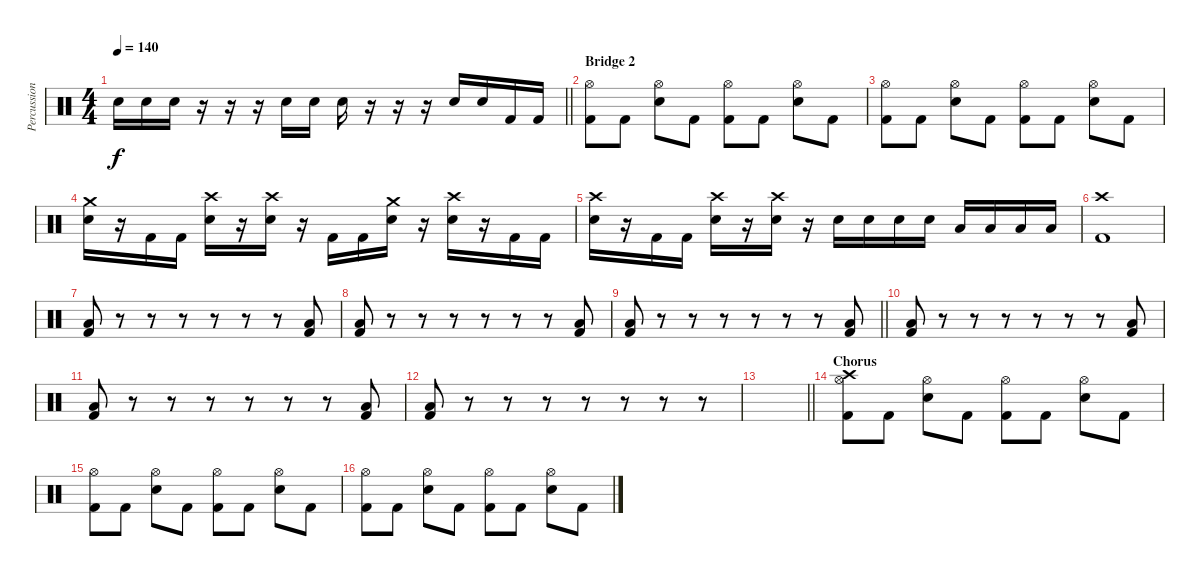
\track ("Percussion" "Percussion") {instrument percussion}
\staff {score}
\articulation defaults
\ts (4 4)
\tempo 140
\clef neutral
\barLineRight lightlight
\ks c "Snare (hit) 2".16{dy f} "Snare (hit) 2".16 "Snare (hit) 2".16
r.16 r.16 r.16 "Snare (hit) 2".16 "Snare (hit) 2".16 "Snare (hit) 2".16 r.16 r.16 r.16 "Snare (hit) 2".16 "Snare (hit) 2".16 "Kick (hit) 2".16 "Kick (hit) 2".16 |
\section ("" "Bridge 2")
("Hi-Hat (open)" "Kick (hit) 2").8 "Kick (hit) 2".8 ("Hi-Hat (open)" "Snare (hit) 2").8 "Kick (hit) 2".8 ("Hi-Hat (open)" "Kick (hit) 2").8 "Kick (hit) 2".8 ("Hi-Hat (open)" "Snare (hit) 2").8 "Kick (hit) 2".8 |
("Hi-Hat (open)" "Kick (hit) 2").8 "Kick (hit) 2".8 ("Hi-Hat (open)" "Snare (hit) 2").8 "Kick (hit) 2".8 ("Hi-Hat (open)" "Kick (hit) 2").8 "Kick (hit) 2".8 ("Hi-Hat (open)" "Snare (hit) 2").8 "Kick (hit) 2".8 |
("Crash medium (hit)" "Snare (hit) 2").16 r.16 "Kick (hit) 2".16 "Kick (hit) 2".16 ("Crash high (hit)" "Snare (hit) 2").16 r.16 ("Crash high (hit)" "Snare (hit) 2").16 r.16 "Kick (hit) 2".16 "Kick (hit) 2".16 ("Crash medium (hit)" "Snare (hit) 2").16 r.16 ("Crash high (hit)" "Snare (hit) 2").16 r.16 "Kick (hit) 2".16 "Kick (hit) 2".16 |
("Crash high (hit)" "Snare (hit) 2").16 r.16 "Kick (hit) 2".16 "Kick (hit) 2".16 ("Crash high (hit)" "Snare (hit) 2").16 r.16 ("Crash high (hit)" "Snare (hit) 2").16 r.16 "Snare (hit) 2".16 "Snare (hit) 2".16 "Snare (hit) 2".16 "Snare (hit) 2".16 "Low Tom (hit)".16 "Low Tom (hit)".16 "Low Floor Tom (hit)".16 "Low Floor Tom (hit)".16 |
("Crash high (hit)" "Kick (hit) 2").1 |
("Low Floor Tom (hit)" "Kick (hit) 2").8 r.8 r.8 r.8 r.8 r.8 r.8 ("Low Floor Tom (hit)" "Kick (hit) 2").8 |
("Low Floor Tom (hit)" "Kick (hit) 2").8 r.8 r.8 r.8 r.8 r.8 r.8 ("Low Floor Tom (hit)" "Kick (hit) 2").8 |
\barLineRight lightlight
("Low Floor Tom (hit)" "Kick (hit) 2").8 r.8 r.8 r.8 r.8 r.8 r.8 ("Low Floor Tom (hit)" "Kick (hit) 2").8 |
("Low Floor Tom (hit)" "Kick (hit) 2").8 r.8 r.8 r.8 r.8 r.8 r.8 ("Low Floor Tom (hit)" "Kick (hit) 2").8 |
("Low Floor Tom (hit)" "Kick (hit) 2").8 r.8 r.8 r.8 r.8 r.8 r.8 ("Low Floor Tom (hit)" "Kick (hit) 2").8 |
("Low Floor Tom (hit)" "Kick (hit) 2").8 r.8 r.8 r.8 r.8 r.8 r.8 r.8 |
\barLineRight lightlight
|
\section ("" "Chorus")
("Crash high (hit)" "Hi-Hat (open)" "Kick (hit) 2").8 "Kick (hit) 2".8 ("Hi-Hat (open)" "Snare (hit) 2").8 "Kick (hit) 2".8 ("Hi-Hat (open)" "Kick (hit) 2").8 "Kick (hit) 2".8 ("Hi-Hat (open)" "Snare (hit) 2").8 "Kick (hit) 2".8 |
("Hi-Hat (open)" "Kick (hit) 2").8 "Kick (hit) 2".8 ("Hi-Hat (open)" "Snare (hit) 2").8 "Kick (hit) 2".8 ("Hi-Hat (open)" "Kick (hit) 2").8 "Kick (hit) 2".8 ("Hi-Hat (open)" "Snare (hit) 2").8 "Kick (hit) 2".8 |
("Hi-Hat (open)" "Kick (hit) 2").8 "Kick (hit) 2".8 ("Hi-Hat (open)" "Snare (hit) 2").8 "Kick (hit) 2".8 ("Hi-Hat (open)" "Kick (hit) 2").8 "Kick (hit) 2".8 ("Hi-Hat (open)" "Snare (hit) 2").8 "Kick (hit) 2".8
